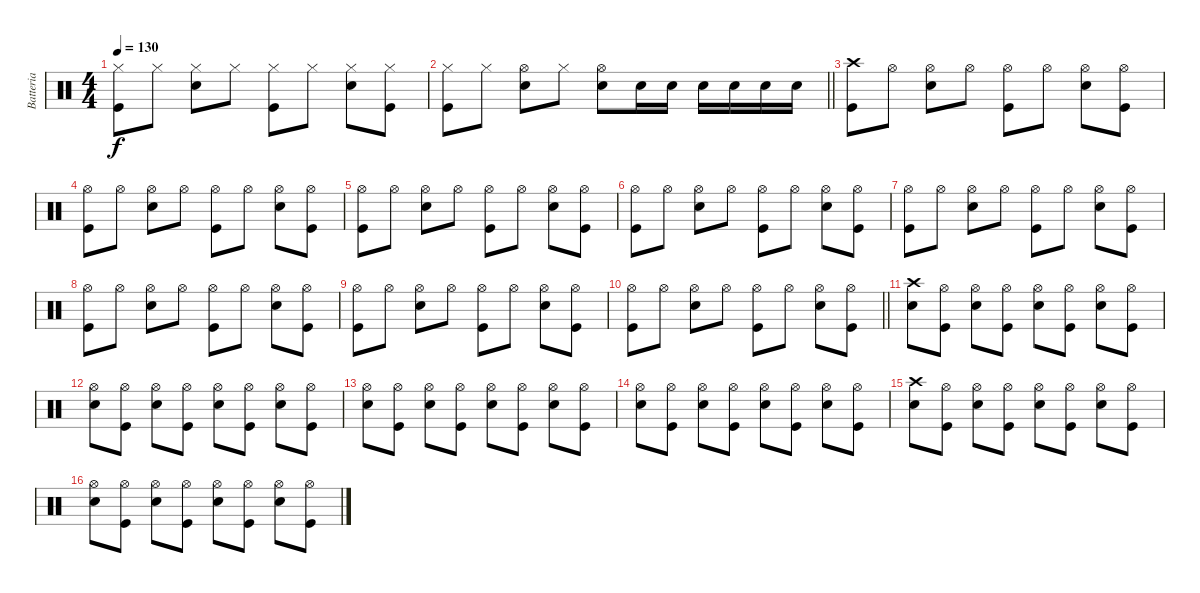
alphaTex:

\track ("Batteria" "Batteria") {instrument percussion}
\staff {score}
\articulation defaults
\ts (4 4)
\tempo 130
\clef neutral
\ks c
("Kick (hit)" "Hi-Hat (closed)").8{dy f} "Hi-Hat (closed)".8 ("Snare (hit) 2" "Hi-Hat (closed)").8 "Hi-Hat (closed)".8 ("Kick (hit)" "Hi-Hat (closed)").8 "Hi-Hat (closed)".8 ("Snare (hit) 2" "Hi-Hat (closed)").8 ("Kick (hit)" "Hi-Hat (closed)").8 |
\barLineRight lightlight
("Kick (hit)" "Hi-Hat (closed)").8 "Hi-Hat (closed)".8 ("Snare (hit) 2" "Hi-Hat (open)").8 "Hi-Hat (closed)".8 ("Snare (hit) 2" "Hi-Hat (open)").8 "Snare (hit) 2".16 "Snare (hit) 2".16 "Snare (hit) 2".16 "Snare (hit) 2".16 "Snare (hit) 2".16 "Snare (hit) 2".16 |
("Kick (hit)" "Crash high (hit)").8 "Hi-Hat (open)".8 ("Snare (hit) 2" "Hi-Hat (open)").8 "Hi-Hat (open)".8 ("Kick (hit)" "Hi-Hat (open)").8 "Hi-Hat (open)".8 ("Snare (hit) 2" "Hi-Hat (open)").8 ("Kick (hit)" "Hi-Hat (open)").8 |
("Kick (hit)" "Hi-Hat (open)").8 "Hi-Hat (open)".8 ("Snare (hit) 2" "Hi-Hat (open)").8 "Hi-Hat (open)".8 ("Kick (hit)" "Hi-Hat (open)").8 "Hi-Hat (open)".8 ("Snare (hit) 2" "Hi-Hat (open)").8 ("Kick (hit)" "Hi-Hat (open)").8 |
("Kick (hit)" "Hi-Hat (open)").8 "Hi-Hat (open)".8 ("Snare (hit) 2" "Hi-Hat (open)").8 "Hi-Hat (open)".8 ("Kick (hit)" "Hi-Hat (open)").8 "Hi-Hat (open)".8 ("Snare (hit) 2" "Hi-Hat (open)").8 ("Kick (hit)" "Hi-Hat (open)").8 |
("Kick (hit)" "Hi-Hat (open)").8 "Hi-Hat (open)".8 ("Snare (hit) 2" "Hi-Hat (open)").8 "Hi-Hat (open)".8 ("Kick (hit)" "Hi-Hat (open)").8 "Hi-Hat (open)".8 ("Snare (hit) 2" "Hi-Hat (open)").8 ("Kick (hit)" "Hi-Hat (open)").8 |
("Kick (hit)" "Hi-Hat (open)").8 "Hi-Hat (open)".8 ("Snare (hit) 2" "Hi-Hat (open)").8 "Hi-Hat (open)".8 ("Kick (hit)" "Hi-Hat (open)").8 "Hi-Hat (open)".8 ("Snare (hit) 2" "Hi-Hat (open)").8 ("Kick (hit)" "Hi-Hat (open)").8 |
("Kick (hit)" "Hi-Hat (open)").8 "Hi-Hat (open)".8 ("Snare (hit) 2" "Hi-Hat (open)").8 "Hi-Hat (open)".8 ("Kick (hit)" "Hi-Hat (open)").8 "Hi-Hat (open)".8 ("Snare (hit) 2" "Hi-Hat (open)").8 ("Kick (hit)" "Hi-Hat (open)").8 |
("Kick (hit)" "Hi-Hat (open)").8 "Hi-Hat (open)".8 ("Snare (hit) 2" "Hi-Hat (open)").8 "Hi-Hat (open)".8 ("Kick (hit)" "Hi-Hat (open)").8 "Hi-Hat (open)".8 ("Snare (hit) 2" "Hi-Hat (open)").8 ("Kick (hit)" "Hi-Hat (open)").8 |
\barLineRight lightlight
("Kick (hit)" "Hi-Hat (open)").8 "Hi-Hat (open)".8 ("Snare (hit) 2" "Hi-Hat (open)").8 "Hi-Hat (open)".8 ("Kick (hit)" "Hi-Hat (open)").8 "Hi-Hat (open)".8 ("Snare (hit) 2" "Hi-Hat (open)").8 ("Kick (hit)" "Hi-Hat (open)").8 |
("Snare (hit) 2" "Crash high (hit)").8 ("Kick (hit)" "Hi-Hat (open)").8 ("Snare (hit) 2" "Hi-Hat (open)").8 ("Kick (hit)" "Hi-Hat (open)").8 ("Snare (hit) 2" "Hi-Hat (open)").8 ("Kick (hit)" "Hi-Hat (open)").8 ("Snare (hit) 2" "Hi-Hat (open)").8 ("Kick (hit)" "Hi-Hat (open)").8 |
("Snare (hit) 2" "Hi-Hat (open)").8 ("Kick (hit)" "Hi-Hat (open)").8 ("Snare (hit) 2" "Hi-Hat (open)").8 ("Kick (hit)" "Hi-Hat (open)").8 ("Snare (hit) 2" "Hi-Hat (open)").8 ("Kick (hit)" "Hi-Hat (open)").8 ("Snare (hit) 2" "Hi-Hat (open)").8 ("Kick (hit)" "Hi-Hat (open)").8 |
("Snare (hit) 2" "Hi-Hat (open)").8 ("Kick (hit)" "Hi-Hat (open)").8 ("Snare (hit) 2" "Hi-Hat (open)").8 ("Kick (hit)" "Hi-Hat (open)").8 ("Snare (hit) 2" "Hi-Hat (open)").8 ("Kick (hit)" "Hi-Hat (open)").8 ("Snare (hit) 2" "Hi-Hat (open)").8 ("Kick (hit)" "Hi-Hat (open)").8 |
("Snare (hit) 2" "Hi-Hat (open)").8 ("Kick (hit)" "Hi-Hat (open)").8 ("Snare (hit) 2" "Hi-Hat (open)").8 ("Kick (hit)" "Hi-Hat (open)").8 ("Snare (hit) 2" "Hi-Hat (open)").8 ("Kick (hit)" "Hi-Hat (open)").8 ("Snare (hit) 2" "Hi-Hat (open)").8 ("Kick (hit)" "Hi-Hat (open)").8 |
("Snare (hit) 2" "Crash high (hit)").8 ("Kick (hit)" "Hi-Hat (open)").8 ("Snare (hit) 2" "Hi-Hat (open)").8 ("Kick (hit)" "Hi-Hat (open)").8 ("Snare (hit) 2" "Hi-Hat (open)").8 ("Kick (hit)" "Hi-Hat (open)").8 ("Snare (hit) 2" "Hi-Hat (open)").8 ("Kick (hit)" "Hi-Hat (open)").8 |
("Snare (hit) 2" "Hi-Hat (open)").8 ("Kick (hit)" "Hi-Hat (open)").8 ("Snare (hit) 2" "Hi-Hat (open)").8 ("Kick (hit)" "Hi-Hat (open)").8 ("Snare (hit) 2" "Hi-Hat (open)").8 ("Kick (hit)" "Hi-Hat (open)").8 ("Snare (hit) 2" "Hi-Hat (open)").8 ("Kick (hit)" "Hi-Hat (open)").8
